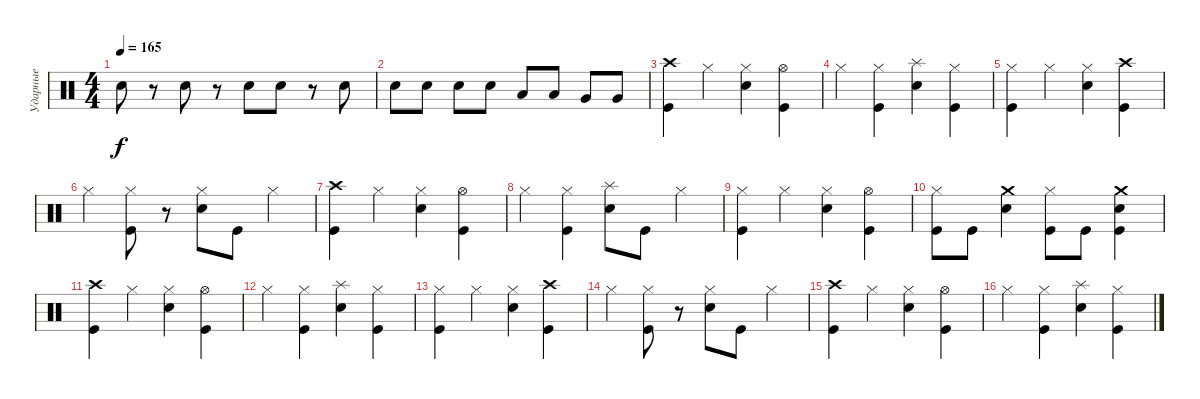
\track ("Ударные" "Ударные") {instrument percussion}
\staff {score}
\articulation defaults
\ts (4 4)
\tempo 165
\clef neutral
\ks c "Electric Snare (hit)".8{dy f}
r.8 "Electric Snare (hit)".8 r.8 "Electric Snare (hit)".8 "Electric Snare (hit)".8 r.8 "Electric Snare (hit)".8 |
"Electric Snare (hit)".8 "Electric Snare (hit)".8 "Electric Snare (hit)".8 "Electric Snare (hit)".8 "Low Tom (hit)".8 "Low Tom (hit)".8 "Very Low Tom (hit)".8 "Very Low Tom (hit)".8 |
("Crash high (hit)" "Kick (hit)").4 "Hi-Hat (closed)".4 ("Hi-Hat (closed)" "Electric Snare (hit)").4 ("Hi-Hat (open)" "Kick (hit)").4 |
"Hi-Hat (closed)".4 ("Hi-Hat (closed)" "Kick (hit)").4 ("Splash (hit)" "Electric Snare (hit)").4 ("Hi-Hat (closed)" "Kick (hit)").4 |
("Hi-Hat (closed)" "Kick (hit)").4 "Hi-Hat (closed)".4 ("Hi-Hat (closed)" "Electric Snare (hit)").4 ("Crash high (hit)" "Kick (hit)").4 |
"Hi-Hat (closed)".4 ("Hi-Hat (closed)" "Kick (hit)").8 r.8 ("Hi-Hat (closed)" "Electric Snare (hit)").8 "Kick (hit)".8 "Hi-Hat (closed)".4 |
("Crash high (hit)" "Kick (hit)").4 "Hi-Hat (closed)".4 ("Hi-Hat (closed)" "Electric Snare (hit)").4 ("Hi-Hat (open)" "Kick (hit)").4 |
"Hi-Hat (closed)".4 ("Hi-Hat (closed)" "Kick (hit)").4 ("Splash (hit)" "Electric Snare (hit)").8 "Kick (hit)".8 "Hi-Hat (closed)".4 |
("Hi-Hat (closed)" "Kick (hit)").4 "Hi-Hat (closed)".4 ("Hi-Hat (closed)" "Electric Snare (hit)").4 ("Hi-Hat (open)" "Kick (hit)").4 |
("Hi-Hat (closed)" "Kick (hit)").8 "Kick (hit)".8 ("Crash medium (hit)" "Electric Snare (hit)").4 ("Hi-Hat (closed)" "Kick (hit)").8 "Kick (hit)".8 ("Crash medium (hit)" "Electric Snare (hit)" "Kick (hit)").4 |
("Crash high (hit)" "Kick (hit)").4 "Hi-Hat (closed)".4 ("Hi-Hat (closed)" "Electric Snare (hit)").4 ("Hi-Hat (open)" "Kick (hit)").4 |
"Hi-Hat (closed)".4 ("Hi-Hat (closed)" "Kick (hit)").4 ("Splash (hit)" "Electric Snare (hit)").4 ("Hi-Hat (closed)" "Kick (hit)").4 |
("Hi-Hat (closed)" "Kick (hit)").4 "Hi-Hat (closed)".4 ("Hi-Hat (closed)" "Electric Snare (hit)").4 ("Crash high (hit)" "Kick (hit)").4 |
"Hi-Hat (closed)".4 ("Hi-Hat (closed)" "Kick (hit)").8 r.8 ("Hi-Hat (closed)" "Electric Snare (hit)").8 "Kick (hit)".8 "Hi-Hat (closed)".4 |
("Crash high (hit)" "Kick (hit)").4 "Hi-Hat (closed)".4 ("Hi-Hat (closed)" "Electric Snare (hit)").4 ("Hi-Hat (open)" "Kick (hit)").4 |
"Hi-Hat (closed)".4 ("Hi-Hat (closed)" "Kick (hit)").4 ("Splash (hit)" "Electric Snare (hit)").4 ("Hi-Hat (closed)" "Kick (hit)").4
